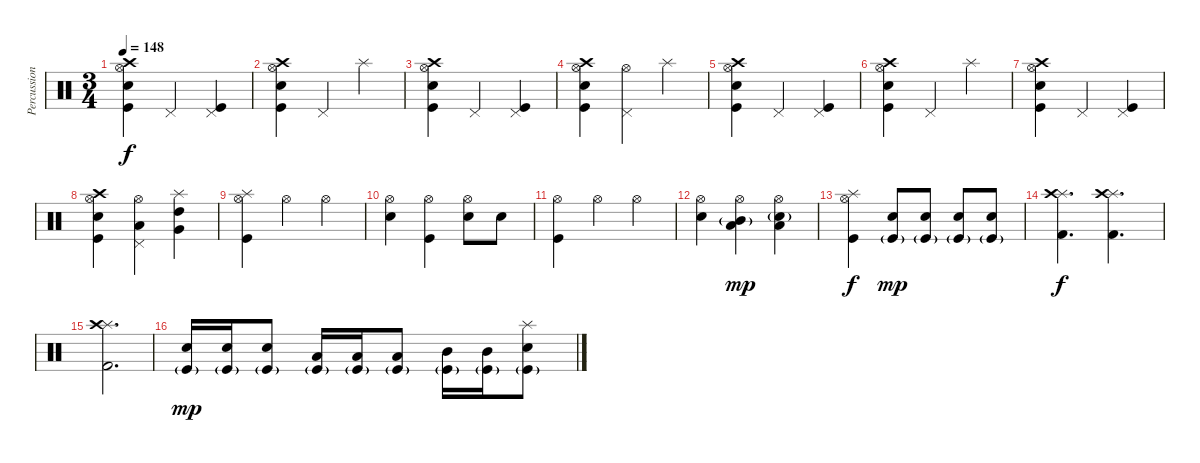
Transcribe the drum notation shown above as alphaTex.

\track ("Percussion" "Percussion") {instrument percussion}
\staff {score}
\articulation defaults
\ts (3 4)
\tempo 148
\clef neutral
\ks c
("Hi-Hat (open)" "Crash high (hit)" "Snare (hit) 2" "Kick (hit)").4{dy f} "Pedal Hi-Hat (hit)".4 ("Pedal Hi-Hat (hit)" "Kick (hit)").4 |
("Hi-Hat (open)" "Crash high (hit)" "Snare (hit) 2" "Kick (hit)").4 "Pedal Hi-Hat (hit)".4 "Splash (hit)".4 |
("Hi-Hat (open)" "Crash high (hit)" "Snare (hit) 2" "Kick (hit)").4 "Pedal Hi-Hat (hit)".4 ("Pedal Hi-Hat (hit)" "Kick (hit)").4 |
("Hi-Hat (open)" "Crash high (hit)" "Snare (hit) 2" "Kick (hit)").4 ("Hi-Hat (open)" "Pedal Hi-Hat (hit)").4 "Splash (hit)".4 |
("Hi-Hat (open)" "Crash high (hit)" "Snare (hit) 2" "Kick (hit)").4 "Pedal Hi-Hat (hit)".4 ("Pedal Hi-Hat (hit)" "Kick (hit)").4 |
("Hi-Hat (open)" "Crash high (hit)" "Snare (hit) 2" "Kick (hit)").4 "Pedal Hi-Hat (hit)".4 "Splash (hit)".4 |
("Hi-Hat (open)" "Crash high (hit)" "Snare (hit) 2" "Kick (hit)").4 "Pedal Hi-Hat (hit)".4 ("Pedal Hi-Hat (hit)" "Kick (hit)").4 |
("Hi-Hat (open)" "Crash high (hit)" "Electric Snare (hit)" "Kick (hit)").4 ("Hi-Hat (open)" "Pedal Hi-Hat (hit)" "Low Tom (hit)").4 ("Splash (hit)" "High Tom (hit)" "Very Low Tom (hit)").4 |
("Hi-Hat (open)" "Splash (hit)" "Kick (hit)").4 "Hi-Hat (open)".4 "Hi-Hat (open)".4 |
("Hi-Hat (open)" "Snare (hit) 2").4 ("Hi-Hat (open)" "Kick (hit)").4 ("Hi-Hat (open)" "Snare (hit) 2").8 "Snare (hit) 2".8 |
("Hi-Hat (open)" "Kick (hit)").4 "Hi-Hat (open)".4 "Hi-Hat (open)".4 |
("Hi-Hat (open)" "Snare (hit) 2").4 ("Hi-Hat (open)" "Mid Tom (hit)"{g} "Low Tom (hit)").4{dy mp} ("Hi-Hat (open)" "Snare (hit) 2"{g} "Low Floor Tom (hit)").4 |
("Hi-Hat (open)" "Splash (hit)" "Kick (hit)").4{dy f} ("Snare (hit) 2" "Kick (hit)"{g}).8{dy mp} ("Snare (hit) 2" "Kick (hit)"{g}).8 ("Snare (hit) 2" "Kick (hit)"{g}).8 ("Snare (hit) 2" "Kick (hit)"{g}).8 |
("Splash (hit)" "Crash high (hit)" "Kick (hit) 2").4{d dy f} ("Splash (hit)" "Crash high (hit)" "Kick (hit) 2").4{d} |
("Splash (hit)" "Crash high (hit)" "Kick (hit) 2").2{d} |
("Snare (hit) 2" "Kick (hit)"{g}).16{dy mp volume 9} ("Snare (hit) 2" "Kick (hit)"{g}).16 ("Snare (hit) 2" "Kick (hit)"{g}).8 ("Low Tom (hit)" "Kick (hit)"{g}).16 ("Low Tom (hit)" "Kick (hit)"{g}).16 ("Low Tom (hit)" "Kick (hit)"{g}).8 ("Mid Tom (hit)" "Kick (hit)"{g}).16 ("Mid Tom (hit)" "Kick (hit)"{g}).16 ("Snare (hit) 2" "Splash (hit)" "Kick (hit)"{g}).8
